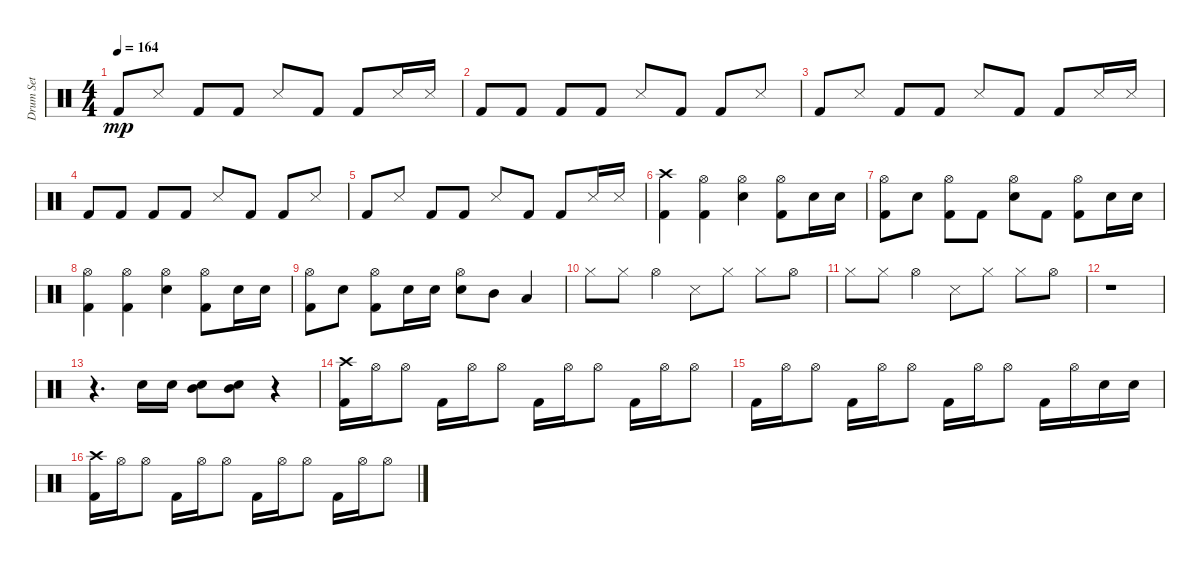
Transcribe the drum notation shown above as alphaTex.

\track ("Drum Set" "Drum Set") {instrument percussion}
\staff {score}
\articulation defaults
\ts (4 4)
\tempo 164
\clef neutral
\ks c "Kick (hit) 2".8{dy mp} "Snare (side stick) 3".8 "Kick (hit) 2".8 "Kick (hit) 2".8 "Snare (side stick) 3".8 "Kick (hit) 2".8 "Kick (hit) 2".8 "Snare (side stick) 3".16 "Snare (side stick) 3".16
|
"Kick (hit) 2".8 "Kick (hit) 2".8 "Kick (hit) 2".8 "Kick (hit) 2".8 "Snare (side stick) 3".8 "Kick (hit) 2".8 "Kick (hit) 2".8 "Snare (side stick) 3".8 |
"Kick (hit) 2".8 "Snare (side stick) 3".8 "Kick (hit) 2".8 "Kick (hit) 2".8 "Snare (side stick) 3".8 "Kick (hit) 2".8 "Kick (hit) 2".8 "Snare (side stick) 3".16 "Snare (side stick) 3".16 |
"Kick (hit) 2".8 "Kick (hit) 2".8 "Kick (hit) 2".8 "Kick (hit) 2".8 "Snare (side stick) 3".8 "Kick (hit) 2".8 "Kick (hit) 2".8 "Snare (side stick) 3".8 |
"Kick (hit) 2".8 "Snare (side stick) 3".8 "Kick (hit) 2".8 "Kick (hit) 2".8 "Snare (side stick) 3".8 "Kick (hit) 2".8 "Kick (hit) 2".8 "Snare (side stick) 3".16 "Snare (side stick) 3".16 |
("Kick (hit) 2" "Crash high (hit)").4 ("Kick (hit) 2" "Hi-Hat (open)").4 ("Snare (hit) 2" "Hi-Hat (open)").4 ("Kick (hit) 2" "Hi-Hat (open)").8 "Snare (hit) 2".16 "Snare (hit) 2".16 |
("Kick (hit) 2" "Hi-Hat (open)").8 "Snare (hit) 2".8 ("Kick (hit) 2" "Hi-Hat (open)").8 "Kick (hit) 2".8 ("Snare (hit) 2" "Hi-Hat (open)").8 "Kick (hit) 2".8 ("Kick (hit) 2" "Hi-Hat (open)").8 "Snare (hit) 2".16 "Snare (hit) 2".16 |
("Kick (hit) 2" "Hi-Hat (open)").4 ("Kick (hit) 2" "Hi-Hat (open)").4 ("Snare (hit) 2" "Hi-Hat (open)").4 ("Kick (hit) 2" "Hi-Hat (open)").8 "Snare (hit) 2".16 "Snare (hit) 2".16 |
("Kick (hit) 2" "Hi-Hat (open)").8 "Snare (hit) 2".8 ("Kick (hit) 2" "Hi-Hat (open)").8 "Snare (hit) 2".16 "Snare (hit) 2".16 ("Snare (hit) 2" "Hi-Hat (open)").8 "Mid Tom (hit)".8 "Low Tom (hit)".4 |
"Hi-Hat (closed)".8 "Hi-Hat (closed)".8 "Hi-Hat (open)".4 "Snare (side stick) 3".8 "Hi-Hat (closed)".8 "Hi-Hat (closed)".8 "Hi-Hat (open)".8 |
"Hi-Hat (closed)".8 "Hi-Hat (closed)".8 "Hi-Hat (open)".4 "Snare (side stick) 3".8 "Hi-Hat (closed)".8 "Hi-Hat (closed)".8 "Hi-Hat (open)".8 |
r.1 |
r.4{d} "Snare (hit) 2".16 "Snare (hit) 2".16 ("Snare (hit) 2" "Mid Tom (hit)").8 ("Snare (hit) 2" "Mid Tom (hit)").8 r.4 |
("Kick (hit) 2" "Crash high (hit)").16 "Hi-Hat (open)".16 "Hi-Hat (open)".8 "Kick (hit) 2".16 "Hi-Hat (open)".16 "Hi-Hat (open)".8 "Kick (hit) 2".16 "Hi-Hat (open)".16 "Hi-Hat (open)".8 "Kick (hit) 2".16 "Hi-Hat (open)".16 "Hi-Hat (open)".8 |
"Kick (hit) 2".16 "Hi-Hat (open)".16 "Hi-Hat (open)".8 "Kick (hit) 2".16 "Hi-Hat (open)".16 "Hi-Hat (open)".8 "Kick (hit) 2".16 "Hi-Hat (open)".16 "Hi-Hat (open)".8 "Kick (hit) 2".16 "Hi-Hat (open)".16 "Snare (hit) 2".16 "Snare (hit) 2".16 |
("Kick (hit) 2" "Crash high (hit)").16 "Hi-Hat (open)".16 "Hi-Hat (open)".8 "Kick (hit) 2".16 "Hi-Hat (open)".16 "Hi-Hat (open)".8 "Kick (hit) 2".16 "Hi-Hat (open)".16 "Hi-Hat (open)".8 "Kick (hit) 2".16 "Hi-Hat (open)".16 "Hi-Hat (open)".8
